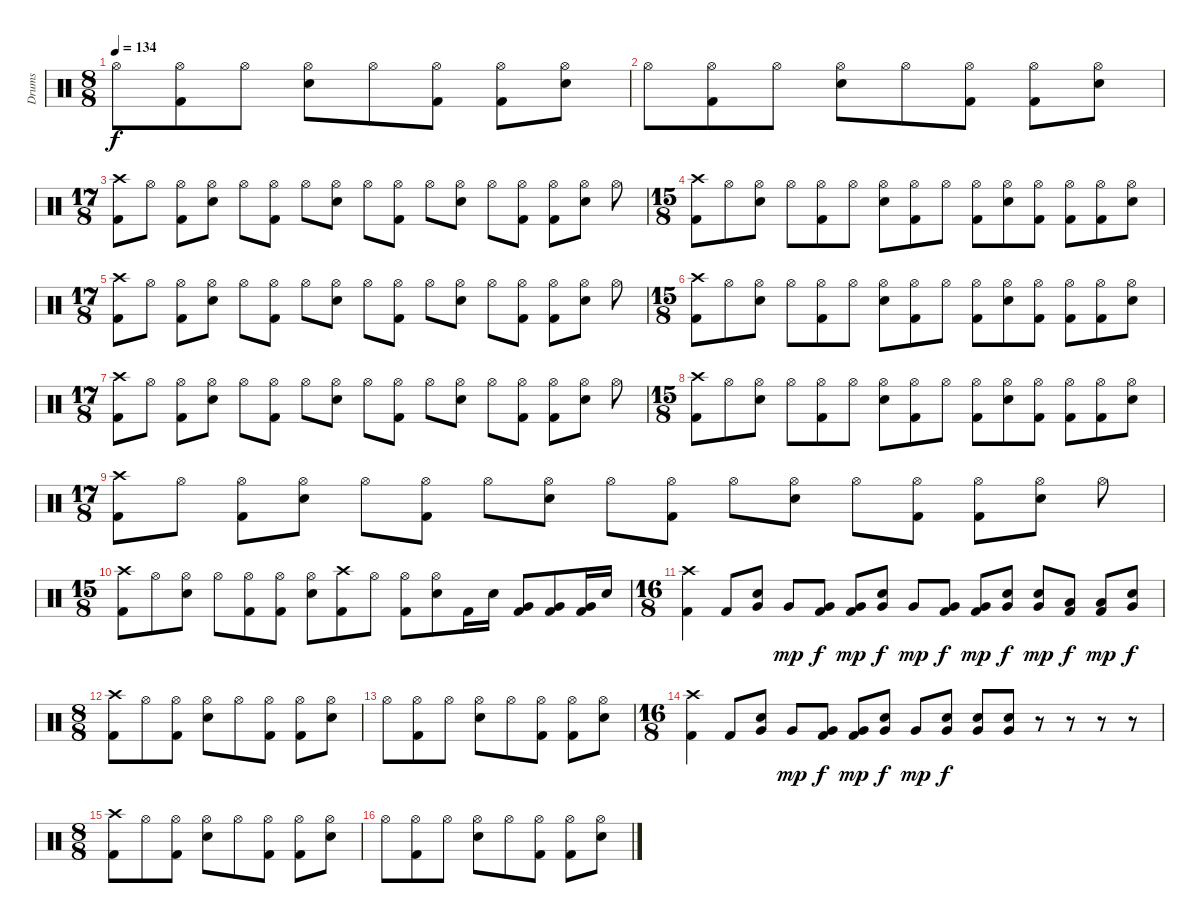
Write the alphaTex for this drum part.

\track ("Drums" "Drums") {instrument percussion}
\staff {score}
\articulation defaults
\ts (8 8)
\tempo 134
\clef neutral
\ks c "Hi-Hat (open)".8{dy f}
("Hi-Hat (open)" "Kick (hit) 2").8 "Hi-Hat (open)".8 ("Hi-Hat (open)" "Snare (hit) 2").8 "Hi-Hat (open)".8 ("Hi-Hat (open)" "Kick (hit) 2").8 ("Hi-Hat (open)" "Kick (hit) 2").8 ("Hi-Hat (open)" "Snare (hit) 2").8 |
"Hi-Hat (open)".8 ("Hi-Hat (open)" "Kick (hit) 2").8 "Hi-Hat (open)".8 ("Hi-Hat (open)" "Snare (hit) 2").8 "Hi-Hat (open)".8 ("Hi-Hat (open)" "Kick (hit) 2").8 ("Hi-Hat (open)" "Kick (hit) 2").8 ("Hi-Hat (open)" "Snare (hit) 2").8 |
\ts (17 8)
("Crash high (hit)" "Kick (hit) 2").8 "Hi-Hat (open)".8 ("Hi-Hat (open)" "Kick (hit) 2").8 ("Hi-Hat (open)" "Snare (hit) 2").8 "Hi-Hat (open)".8 ("Hi-Hat (open)" "Kick (hit) 2").8 "Hi-Hat (open)".8 ("Hi-Hat (open)" "Snare (hit) 2").8 "Hi-Hat (open)".8 ("Hi-Hat (open)" "Kick (hit) 2").8 "Hi-Hat (open)".8 ("Hi-Hat (open)" "Snare (hit) 2").8 "Hi-Hat (open)".8 ("Hi-Hat (open)" "Kick (hit) 2").8 ("Hi-Hat (open)" "Kick (hit) 2").8 ("Hi-Hat (open)" "Snare (hit) 2").8 "Hi-Hat (open)".8 |
\ts (15 8)
("Crash high (hit)" "Kick (hit) 2").8 "Hi-Hat (open)".8 ("Hi-Hat (open)" "Snare (hit) 2").8 "Hi-Hat (open)".8 ("Hi-Hat (open)" "Kick (hit) 2").8 "Hi-Hat (open)".8 ("Hi-Hat (open)" "Snare (hit) 2").8 ("Hi-Hat (open)" "Kick (hit) 2").8 "Hi-Hat (open)".8 ("Hi-Hat (open)" "Kick (hit) 2").8 ("Hi-Hat (open)" "Snare (hit) 2").8 ("Hi-Hat (open)" "Kick (hit) 2").8 ("Hi-Hat (open)" "Kick (hit) 2").8 ("Hi-Hat (open)" "Kick (hit) 2").8 ("Hi-Hat (open)" "Snare (hit) 2").8 |
\ts (17 8)
("Crash high (hit)" "Kick (hit) 2").8 "Hi-Hat (open)".8 ("Hi-Hat (open)" "Kick (hit) 2").8 ("Hi-Hat (open)" "Snare (hit) 2").8 "Hi-Hat (open)".8 ("Hi-Hat (open)" "Kick (hit) 2").8 "Hi-Hat (open)".8 ("Hi-Hat (open)" "Snare (hit) 2").8 "Hi-Hat (open)".8 ("Hi-Hat (open)" "Kick (hit) 2").8 "Hi-Hat (open)".8 ("Hi-Hat (open)" "Snare (hit) 2").8 "Hi-Hat (open)".8 ("Hi-Hat (open)" "Kick (hit) 2").8 ("Hi-Hat (open)" "Kick (hit) 2").8 ("Hi-Hat (open)" "Snare (hit) 2").8 "Hi-Hat (open)".8 |
\ts (15 8)
("Crash high (hit)" "Kick (hit) 2").8 "Hi-Hat (open)".8 ("Hi-Hat (open)" "Snare (hit) 2").8 "Hi-Hat (open)".8 ("Hi-Hat (open)" "Kick (hit) 2").8 "Hi-Hat (open)".8 ("Hi-Hat (open)" "Snare (hit) 2").8 ("Hi-Hat (open)" "Kick (hit) 2").8 "Hi-Hat (open)".8 ("Hi-Hat (open)" "Kick (hit) 2").8 ("Hi-Hat (open)" "Snare (hit) 2").8 ("Hi-Hat (open)" "Kick (hit) 2").8 ("Hi-Hat (open)" "Kick (hit) 2").8 ("Hi-Hat (open)" "Kick (hit) 2").8 ("Hi-Hat (open)" "Snare (hit) 2").8 |
\ts (17 8)
("Crash high (hit)" "Kick (hit) 2").8 "Hi-Hat (open)".8 ("Hi-Hat (open)" "Kick (hit) 2").8 ("Hi-Hat (open)" "Snare (hit) 2").8 "Hi-Hat (open)".8 ("Hi-Hat (open)" "Kick (hit) 2").8 "Hi-Hat (open)".8 ("Hi-Hat (open)" "Snare (hit) 2").8 "Hi-Hat (open)".8 ("Hi-Hat (open)" "Kick (hit) 2").8 "Hi-Hat (open)".8 ("Hi-Hat (open)" "Snare (hit) 2").8 "Hi-Hat (open)".8 ("Hi-Hat (open)" "Kick (hit) 2").8 ("Hi-Hat (open)" "Kick (hit) 2").8 ("Hi-Hat (open)" "Snare (hit) 2").8 "Hi-Hat (open)".8 |
\ts (15 8)
("Crash high (hit)" "Kick (hit) 2").8 "Hi-Hat (open)".8 ("Hi-Hat (open)" "Snare (hit) 2").8 "Hi-Hat (open)".8 ("Hi-Hat (open)" "Kick (hit) 2").8 "Hi-Hat (open)".8 ("Hi-Hat (open)" "Snare (hit) 2").8 ("Hi-Hat (open)" "Kick (hit) 2").8 "Hi-Hat (open)".8 ("Hi-Hat (open)" "Kick (hit) 2").8 ("Hi-Hat (open)" "Snare (hit) 2").8 ("Hi-Hat (open)" "Kick (hit) 2").8 ("Hi-Hat (open)" "Kick (hit) 2").8 ("Hi-Hat (open)" "Kick (hit) 2").8 ("Hi-Hat (open)" "Snare (hit) 2").8 |
\ts (17 8)
("Crash high (hit)" "Kick (hit) 2").8 "Hi-Hat (open)".8 ("Hi-Hat (open)" "Kick (hit) 2").8 ("Hi-Hat (open)" "Snare (hit) 2").8 "Hi-Hat (open)".8 ("Hi-Hat (open)" "Kick (hit) 2").8 "Hi-Hat (open)".8 ("Hi-Hat (open)" "Snare (hit) 2").8 "Hi-Hat (open)".8 ("Hi-Hat (open)" "Kick (hit) 2").8 "Hi-Hat (open)".8 ("Hi-Hat (open)" "Snare (hit) 2").8 "Hi-Hat (open)".8 ("Hi-Hat (open)" "Kick (hit) 2").8 ("Hi-Hat (open)" "Kick (hit) 2").8 ("Hi-Hat (open)" "Snare (hit) 2").8 "Hi-Hat (open)".8 |
\ts (15 8)
("Crash high (hit)" "Kick (hit) 2").8 "Hi-Hat (open)".8 ("Hi-Hat (open)" "Snare (hit) 2").8 "Hi-Hat (open)".8 ("Hi-Hat (open)" "Kick (hit) 2").8 ("Hi-Hat (open)" "Kick (hit) 2").8 ("Hi-Hat (open)" "Snare (hit) 2").8 ("Crash high (hit)" "Kick (hit) 2").8 "Hi-Hat (open)".8 ("Hi-Hat (open)" "Kick (hit) 2").8 ("Hi-Hat (open)" "Snare (hit) 2").8 "Kick (hit) 2".16 "Snare (hit) 2".16 ("Very Low Tom (hit)" "Kick (hit) 2").8 ("Very Low Tom (hit)" "Kick (hit) 2").8 ("Very Low Tom (hit)" "Kick (hit) 2").16 "Snare (hit) 2".16 |
\ts (16 8)
("Crash high (hit)" "Kick (hit) 2").4 "Kick (hit) 2".8 ("Very Low Tom (hit)" "Snare (hit) 2").8 "Very Low Tom (hit)".8{dy mp} ("Very Low Tom (hit)" "Kick (hit) 2").8{dy f} ("Very Low Tom (hit)" "Kick (hit) 2").8{dy mp} ("Very Low Tom (hit)" "Snare (hit) 2").8{dy f} "Very Low Tom (hit)".8{dy mp} ("Very Low Tom (hit)" "Kick (hit) 2").8{dy f} ("Very Low Tom (hit)" "Kick (hit) 2").8{dy mp} ("Very Low Tom (hit)" "Snare (hit) 2").8{dy f} ("Very Low Tom (hit)" "Snare (hit) 2").8{dy mp} ("Low Tom (hit)" "Kick (hit) 2").8{dy f} ("Low Tom (hit)" "Kick (hit) 2").8{dy mp} ("Very Low Tom (hit)" "Snare (hit) 2").8{dy f} |
\ts (8 8)
("Crash high (hit)" "Kick (hit) 2").8 "Hi-Hat (open)".8 ("Hi-Hat (open)" "Kick (hit) 2").8 ("Hi-Hat (open)" "Snare (hit) 2").8 "Hi-Hat (open)".8 ("Hi-Hat (open)" "Kick (hit) 2").8 ("Hi-Hat (open)" "Kick (hit) 2").8 ("Hi-Hat (open)" "Snare (hit) 2").8 |
"Hi-Hat (open)".8 ("Hi-Hat (open)" "Kick (hit) 2").8 "Hi-Hat (open)".8 ("Hi-Hat (open)" "Snare (hit) 2").8 "Hi-Hat (open)".8 ("Hi-Hat (open)" "Kick (hit) 2").8 ("Hi-Hat (open)" "Kick (hit) 2").8 ("Hi-Hat (open)" "Snare (hit) 2").8 |
\ts (16 8)
("Crash high (hit)" "Kick (hit) 2").4 "Kick (hit) 2".8 ("Very Low Tom (hit)" "Snare (hit) 2").8 "Very Low Tom (hit)".8{dy mp} ("Very Low Tom (hit)" "Kick (hit) 2").8{dy f} ("Very Low Tom (hit)" "Kick (hit) 2").8{dy mp} ("Very Low Tom (hit)" "Snare (hit) 2").8{dy f} "Very Low Tom (hit)".8{dy mp} ("Very Low Tom (hit)" "Snare (hit) 2").8{dy f} ("Very Low Tom (hit)" "Snare (hit) 2").8 ("Very Low Tom (hit)" "Snare (hit) 2").8 r.8 r.8 r.8 r.8 |
\ts (8 8)
("Crash high (hit)" "Kick (hit) 2").8 "Hi-Hat (open)".8 ("Hi-Hat (open)" "Kick (hit) 2").8 ("Hi-Hat (open)" "Snare (hit) 2").8 "Hi-Hat (open)".8 ("Hi-Hat (open)" "Kick (hit) 2").8 ("Hi-Hat (open)" "Kick (hit) 2").8 ("Hi-Hat (open)" "Snare (hit) 2").8 |
"Hi-Hat (open)".8 ("Hi-Hat (open)" "Kick (hit) 2").8 "Hi-Hat (open)".8 ("Hi-Hat (open)" "Snare (hit) 2").8 "Hi-Hat (open)".8 ("Hi-Hat (open)" "Kick (hit) 2").8 ("Hi-Hat (open)" "Kick (hit) 2").8 ("Hi-Hat (open)" "Snare (hit) 2").8
